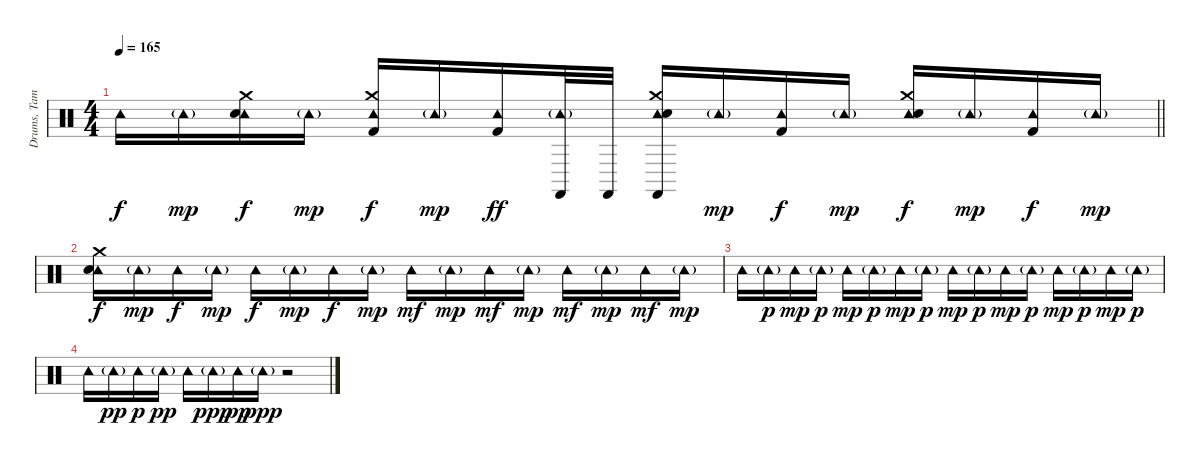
\track ("Drums, Tambourine, Castinets" "Drums, Tam") {instrument percussion}
\staff {score}
\articulation defaults
\ts (4 4)
\tempo 165
\clef neutral
\barLineRight lightlight
\ks c "Tambourine (hit)".16{dy f} "Tambourine (hit)"{g}.16{dy mp}
("Crash medium (hit)" "Tambourine (hit)" "Snare (hit) 2").16{dy f} "Tambourine (hit)"{g}.16{dy mp} ("Crash medium (hit)" "Tambourine (hit)" "Kick (hit) 2").16{dy f} "Tambourine (hit)"{g}.16{dy mp} ("Tambourine (hit)" "Kick (hit) 2").16{dy ff} ("Tambourine (hit)"{g} "Castanets (hit)").32 "Castanets (hit)".32 ("Crash medium (hit)" "Tambourine (hit)" "Snare (hit) 2" "Castanets (hit)").16 "Tambourine (hit)"{g}.16{dy mp} ("Tambourine (hit)" "Kick (hit) 2").16{dy f} "Tambourine (hit)"{g}.16{dy mp} ("Crash medium (hit)" "Tambourine (hit)" "Snare (hit) 2").16{dy f} "Tambourine (hit)"{g}.16{dy mp} ("Tambourine (hit)" "Kick (hit) 2").16{dy f} "Tambourine (hit)"{g}.16{dy mp} |
("Crash medium (hit)" "Tambourine (hit)" "Snare (hit) 2").16{dy f} "Tambourine (hit)"{g}.16{dy mp} "Tambourine (hit)".16{dy f} "Tambourine (hit)"{g}.16{dy mp} "Tambourine (hit)".16{dy f} "Tambourine (hit)"{g}.16{dy mp} "Tambourine (hit)".16{dy f} "Tambourine (hit)"{g}.16{dy mp} "Tambourine (hit)".16{dy mf} "Tambourine (hit)"{g}.16{dy mp} "Tambourine (hit)".16{dy mf} "Tambourine (hit)"{g}.16{dy mp} "Tambourine (hit)".16{dy mf} "Tambourine (hit)"{g}.16{dy mp} "Tambourine (hit)".16{dy mf} "Tambourine (hit)"{g}.16{dy mp} |
"Tambourine (hit)".16 "Tambourine (hit)"{g}.16{dy p} "Tambourine (hit)".16{dy mp} "Tambourine (hit)"{g}.16{dy p} "Tambourine (hit)".16{dy mp} "Tambourine (hit)"{g}.16{dy p} "Tambourine (hit)".16{dy mp} "Tambourine (hit)"{g}.16{dy p} "Tambourine (hit)".16{dy mp} "Tambourine (hit)"{g}.16{dy p} "Tambourine (hit)".16{dy mp} "Tambourine (hit)"{g}.16{dy p} "Tambourine (hit)".16{dy mp} "Tambourine (hit)"{g}.16{dy p} "Tambourine (hit)".16{dy mp} "Tambourine (hit)"{g}.16{dy p} |
"Tambourine (hit)".16 "Tambourine (hit)"{g}.16{dy pp} "Tambourine (hit)".16{dy p} "Tambourine (hit)"{g}.16{dy pp} "Tambourine (hit)".16 "Tambourine (hit)"{g}.16{dy ppp} "Tambourine (hit)".16{dy pp} "Tambourine (hit)"{g}.16{dy ppp} r.2
